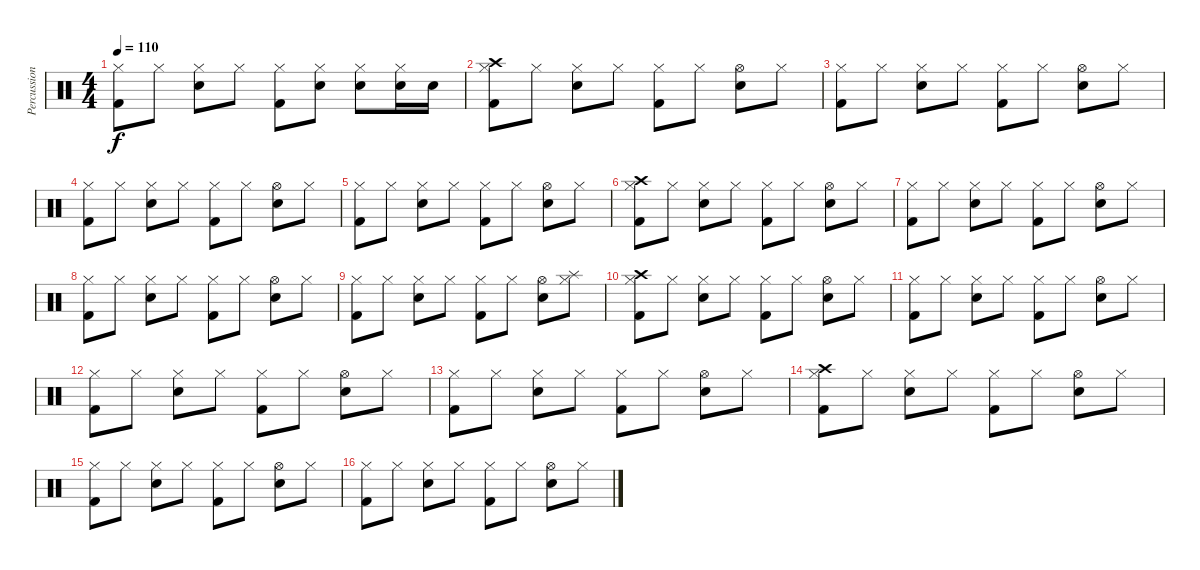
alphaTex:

\track ("Percussion" "Percussion") {instrument percussion}
\staff {score}
\articulation defaults
\ts (4 4)
\tempo 110
\clef neutral
\ks c
("Hi-Hat (closed)" "Kick (hit) 2").8{dy f} "Hi-Hat (closed)".8 ("Snare (hit) 2" "Hi-Hat (closed)").8 "Hi-Hat (closed)".8 ("Hi-Hat (closed)" "Kick (hit) 2").8 ("Snare (hit) 2" "Hi-Hat (closed)").8 ("Snare (hit) 2" "Hi-Hat (closed)").8 ("Snare (hit) 2" "Hi-Hat (closed)").16 "Snare (hit) 2".16 |
("Crash high (hit)" "Hi-Hat (closed)" "Kick (hit) 2").8 "Hi-Hat (closed)".8 ("Snare (hit) 2" "Hi-Hat (closed)").8 "Hi-Hat (closed)".8 ("Hi-Hat (closed)" "Kick (hit) 2").8 "Hi-Hat (closed)".8 ("Snare (hit) 2" "Hi-Hat (open)").8 "Hi-Hat (closed)".8 |
("Hi-Hat (closed)" "Kick (hit) 2").8 "Hi-Hat (closed)".8 ("Snare (hit) 2" "Hi-Hat (closed)").8 "Hi-Hat (closed)".8 ("Hi-Hat (closed)" "Kick (hit) 2").8 "Hi-Hat (closed)".8 ("Snare (hit) 2" "Hi-Hat (open)").8 "Hi-Hat (closed)".8 |
("Hi-Hat (closed)" "Kick (hit) 2").8 "Hi-Hat (closed)".8 ("Snare (hit) 2" "Hi-Hat (closed)").8 "Hi-Hat (closed)".8 ("Hi-Hat (closed)" "Kick (hit) 2").8 "Hi-Hat (closed)".8 ("Snare (hit) 2" "Hi-Hat (open)").8 "Hi-Hat (closed)".8 |
("Hi-Hat (closed)" "Kick (hit) 2").8 "Hi-Hat (closed)".8 ("Snare (hit) 2" "Hi-Hat (closed)").8 "Hi-Hat (closed)".8 ("Hi-Hat (closed)" "Kick (hit) 2").8 "Hi-Hat (closed)".8 ("Snare (hit) 2" "Hi-Hat (open)").8 "Hi-Hat (closed)".8 |
("Crash high (hit)" "Hi-Hat (closed)" "Kick (hit) 2").8 "Hi-Hat (closed)".8 ("Snare (hit) 2" "Hi-Hat (closed)").8 "Hi-Hat (closed)".8 ("Hi-Hat (closed)" "Kick (hit) 2").8 "Hi-Hat (closed)".8 ("Snare (hit) 2" "Hi-Hat (open)").8 "Hi-Hat (closed)".8 |
("Hi-Hat (closed)" "Kick (hit) 2").8 "Hi-Hat (closed)".8 ("Snare (hit) 2" "Hi-Hat (closed)").8 "Hi-Hat (closed)".8 ("Hi-Hat (closed)" "Kick (hit) 2").8 "Hi-Hat (closed)".8 ("Snare (hit) 2" "Hi-Hat (open)").8 "Hi-Hat (closed)".8 |
("Hi-Hat (closed)" "Kick (hit) 2").8 "Hi-Hat (closed)".8 ("Snare (hit) 2" "Hi-Hat (closed)").8 "Hi-Hat (closed)".8 ("Hi-Hat (closed)" "Kick (hit) 2").8 "Hi-Hat (closed)".8 ("Snare (hit) 2" "Hi-Hat (open)").8 "Hi-Hat (closed)".8 |
("Hi-Hat (closed)" "Kick (hit) 2").8 "Hi-Hat (closed)".8 ("Snare (hit) 2" "Hi-Hat (closed)").8 "Hi-Hat (closed)".8 ("Hi-Hat (closed)" "Kick (hit) 2").8 "Hi-Hat (closed)".8 ("Snare (hit) 2" "Hi-Hat (open)").8 ("Splash (hit)" "Hi-Hat (closed)").8 |
("Crash high (hit)" "Hi-Hat (closed)" "Kick (hit) 2").8 "Hi-Hat (closed)".8 ("Snare (hit) 2" "Hi-Hat (closed)").8 "Hi-Hat (closed)".8 ("Hi-Hat (closed)" "Kick (hit) 2").8 "Hi-Hat (closed)".8 ("Snare (hit) 2" "Hi-Hat (open)").8 "Hi-Hat (closed)".8 |
("Hi-Hat (closed)" "Kick (hit) 2").8 "Hi-Hat (closed)".8 ("Snare (hit) 2" "Hi-Hat (closed)").8 "Hi-Hat (closed)".8 ("Hi-Hat (closed)" "Kick (hit) 2").8 "Hi-Hat (closed)".8 ("Snare (hit) 2" "Hi-Hat (open)").8 "Hi-Hat (closed)".8 |
("Hi-Hat (closed)" "Kick (hit) 2").8 "Hi-Hat (closed)".8 ("Snare (hit) 2" "Hi-Hat (closed)").8 "Hi-Hat (closed)".8 ("Hi-Hat (closed)" "Kick (hit) 2").8 "Hi-Hat (closed)".8 ("Snare (hit) 2" "Hi-Hat (open)").8 "Hi-Hat (closed)".8 |
("Hi-Hat (closed)" "Kick (hit) 2").8 "Hi-Hat (closed)".8 ("Snare (hit) 2" "Hi-Hat (closed)").8 "Hi-Hat (closed)".8 ("Hi-Hat (closed)" "Kick (hit) 2").8 "Hi-Hat (closed)".8 ("Snare (hit) 2" "Hi-Hat (open)").8 "Hi-Hat (closed)".8 |
("Crash high (hit)" "Hi-Hat (closed)" "Kick (hit) 2").8{volume 9} "Hi-Hat (closed)".8 ("Snare (hit) 2" "Hi-Hat (closed)").8 "Hi-Hat (closed)".8 ("Hi-Hat (closed)" "Kick (hit) 2").8 "Hi-Hat (closed)".8 ("Snare (hit) 2" "Hi-Hat (open)").8 "Hi-Hat (closed)".8 |
("Hi-Hat (closed)" "Kick (hit) 2").8{volume 6} "Hi-Hat (closed)".8 ("Snare (hit) 2" "Hi-Hat (closed)").8 "Hi-Hat (closed)".8 ("Hi-Hat (closed)" "Kick (hit) 2").8 "Hi-Hat (closed)".8 ("Snare (hit) 2" "Hi-Hat (open)").8 "Hi-Hat (closed)".8 |
("Hi-Hat (closed)" "Kick (hit) 2").8{volume 1} "Hi-Hat (closed)".8 ("Snare (hit) 2" "Hi-Hat (closed)").8 "Hi-Hat (closed)".8 ("Hi-Hat (closed)" "Kick (hit) 2").8 "Hi-Hat (closed)".8 ("Snare (hit) 2" "Hi-Hat (open)").8 "Hi-Hat (closed)".8
